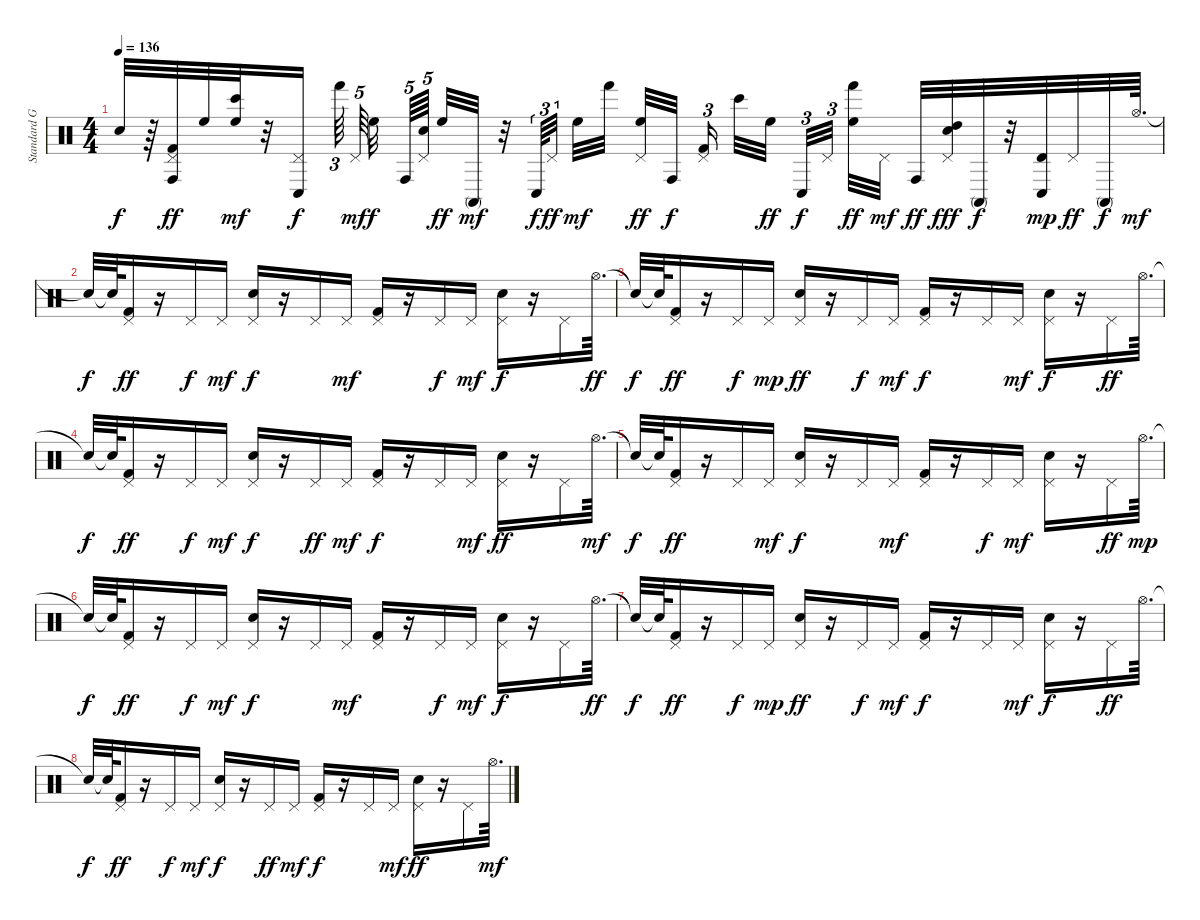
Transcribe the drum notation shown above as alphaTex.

\track ("Standard GM Drum Kit" "Standard G") {instrument percussion}
\staff {score}
\articulation defaults
\ts (4 4)
\tempo 136
\clef neutral
\ks c "Snare (hit)"{t}.32{dy f}
r.64 ("Pedal Hi-Hat (hit)" "Kick (hit) 2" "Conga high (hit)").32{dy ff} "High Floor Tom (hit)".32 ("Bongo High (hit)" "High Floor Tom (hit)").32{dy mf} r.32 ("Conga low (hit)" "Pedal Hi-Hat (hit)").16{dy f} "Hand (hit)".64{tu (3 2)} "Pedal Hi-Hat (hit)".64{tu (5 4) dy mf} "High Floor Tom (hit)".32{dy f} "Conga high (hit)".64{tu (5 4)} ("Pedal Hi-Hat (hit)" "Electric Snare (hit)").64{tu (5 4)} "High Floor Tom (hit)".32{dy ff} "Conga high (mute)".32{dy mf} r.32 "Conga low (hit)".64{tu (3 2) dy f} "Pedal Hi-Hat (hit)".32{tu (3 2) dy ff} "High Floor Tom (hit)".32{dy mf} "Hand (hit)".32 ("Pedal Hi-Hat (hit)" "High Floor Tom (hit)").32{dy ff} "Conga high (hit)".32{dy f} ("Kick (hit) 2" "Pedal Hi-Hat (hit)").16{tu (3 2)} "Bongo High (hit)".32 "High Floor Tom (hit)".32{dy ff} "Conga low (hit)".32{tu (3 2) dy f} "Pedal Hi-Hat (hit)".32{tu (3 2)} ("High Floor Tom (hit)" "Hand (hit)").32{dy ff} "Pedal Hi-Hat (hit)".32{dy mf} "Conga high (hit)".32{dy ff} ("Electric Snare (hit)" "Pedal Hi-Hat (hit)" "High Tom (hit)").32{dy fff} "Conga high (mute)".32{dy f} r.32 ("Conga low (hit)" "Timbale high (hit)").32{dy mp} "Pedal Hi-Hat (hit)".32{dy ff} "Conga high (mute)".32{dy f} "Hi-Hat (open)".64{d dy mf} |
"Snare (hit)"{t}.32{dy f} "Snare (hit)"{t}.64 ("Pedal Hi-Hat (hit)" "Kick (hit) 2").16{dy ff volume 16 balance 8} r.16 "Pedal Hi-Hat (hit)".16{dy f} "Pedal Hi-Hat (hit)".16{dy mf} ("Pedal Hi-Hat (hit)" "Electric Snare (hit)").16{dy f} r.16 "Pedal Hi-Hat (hit)".16 "Pedal Hi-Hat (hit)".16{dy mf} ("Pedal Hi-Hat (hit)" "Kick (hit) 2").16 r.16 "Pedal Hi-Hat (hit)".16{dy f} "Pedal Hi-Hat (hit)".16{dy mf} ("Pedal Hi-Hat (hit)" "Electric Snare (hit)").16{dy f} r.16 "Pedal Hi-Hat (hit)".16 "Hi-Hat (open)".64{d dy ff} |
"Snare (hit)"{t}.32{dy f} "Snare (hit)"{t}.64 ("Pedal Hi-Hat (hit)" "Kick (hit) 2").16{dy ff} r.16 "Pedal Hi-Hat (hit)".16{dy f} "Pedal Hi-Hat (hit)".16{dy mp} ("Pedal Hi-Hat (hit)" "Electric Snare (hit)").16{dy ff} r.16 "Pedal Hi-Hat (hit)".16{dy f} "Pedal Hi-Hat (hit)".16{dy mf} ("Kick (hit) 2" "Pedal Hi-Hat (hit)").16{dy f} r.16 "Pedal Hi-Hat (hit)".16 "Pedal Hi-Hat (hit)".16{dy mf} ("Electric Snare (hit)" "Pedal Hi-Hat (hit)").16{dy f} r.16 "Pedal Hi-Hat (hit)".16{dy ff} "Hi-Hat (open)".64{d} |
"Snare (hit)"{t}.32{dy f} "Snare (hit)"{t}.64 ("Pedal Hi-Hat (hit)" "Kick (hit) 2").16{dy ff} r.16 "Pedal Hi-Hat (hit)".16{dy f} "Pedal Hi-Hat (hit)".16{dy mf} ("Pedal Hi-Hat (hit)" "Electric Snare (hit)").16{dy f} r.16 "Pedal Hi-Hat (hit)".16{dy ff} "Pedal Hi-Hat (hit)".16{dy mf} ("Kick (hit) 2" "Pedal Hi-Hat (hit)").16{dy f} r.16 "Pedal Hi-Hat (hit)".16 "Pedal Hi-Hat (hit)".16{dy mf} ("Electric Snare (hit)" "Pedal Hi-Hat (hit)").16{dy ff} r.16 "Pedal Hi-Hat (hit)".16 "Hi-Hat (open)".64{d dy mf} |
"Snare (hit)"{t}.32{dy f} "Snare (hit)"{t}.64 ("Pedal Hi-Hat (hit)" "Kick (hit) 2").16{dy ff} r.16 "Pedal Hi-Hat (hit)".16 "Pedal Hi-Hat (hit)".16{dy mf} ("Pedal Hi-Hat (hit)" "Electric Snare (hit)").16{dy f} r.16 "Pedal Hi-Hat (hit)".16 "Pedal Hi-Hat (hit)".16{dy mf} ("Kick (hit) 2" "Pedal Hi-Hat (hit)").16 r.16 "Pedal Hi-Hat (hit)".16{dy f} "Pedal Hi-Hat (hit)".16{dy mf} ("Electric Snare (hit)" "Pedal Hi-Hat (hit)").16 r.16 "Pedal Hi-Hat (hit)".16{dy ff} "Hi-Hat (open)".64{d dy mp} |
"Snare (hit)"{t}.32{dy f} "Snare (hit)"{t}.64 ("Kick (hit) 2" "Pedal Hi-Hat (hit)").16{dy ff} r.16 "Pedal Hi-Hat (hit)".16{dy f} "Pedal Hi-Hat (hit)".16{dy mf} ("Pedal Hi-Hat (hit)" "Electric Snare (hit)").16{dy f} r.16 "Pedal Hi-Hat (hit)".16 "Pedal Hi-Hat (hit)".16{dy mf} ("Pedal Hi-Hat (hit)" "Kick (hit) 2").16 r.16 "Pedal Hi-Hat (hit)".16{dy f} "Pedal Hi-Hat (hit)".16{dy mf} ("Pedal Hi-Hat (hit)" "Electric Snare (hit)").16{dy f} r.16 "Pedal Hi-Hat (hit)".16 "Hi-Hat (open)".64{d dy ff} |
"Snare (hit)"{t}.32{dy f} "Snare (hit)"{t}.64 ("Pedal Hi-Hat (hit)" "Kick (hit) 2").16{dy ff} r.16 "Pedal Hi-Hat (hit)".16{dy f} "Pedal Hi-Hat (hit)".16{dy mp} ("Pedal Hi-Hat (hit)" "Electric Snare (hit)").16{dy ff} r.16 "Pedal Hi-Hat (hit)".16{dy f} "Pedal Hi-Hat (hit)".16{dy mf} ("Kick (hit) 2" "Pedal Hi-Hat (hit)").16{dy f} r.16 "Pedal Hi-Hat (hit)".16 "Pedal Hi-Hat (hit)".16{dy mf} ("Electric Snare (hit)" "Pedal Hi-Hat (hit)").16{dy f} r.16 "Pedal Hi-Hat (hit)".16{dy ff} "Hi-Hat (open)".64{d} |
"Snare (hit)"{t}.32{dy f} "Snare (hit)"{t}.64 ("Pedal Hi-Hat (hit)" "Kick (hit) 2").16{dy ff} r.16 "Pedal Hi-Hat (hit)".16{dy f} "Pedal Hi-Hat (hit)".16{dy mf} ("Pedal Hi-Hat (hit)" "Electric Snare (hit)").16{dy f} r.16 "Pedal Hi-Hat (hit)".16{dy ff} "Pedal Hi-Hat (hit)".16{dy mf} ("Kick (hit) 2" "Pedal Hi-Hat (hit)").16{dy f} r.16 "Pedal Hi-Hat (hit)".16 "Pedal Hi-Hat (hit)".16{dy mf} ("Electric Snare (hit)" "Pedal Hi-Hat (hit)").16{dy ff} r.16 "Pedal Hi-Hat (hit)".16 "Hi-Hat (open)".64{d dy mf}
